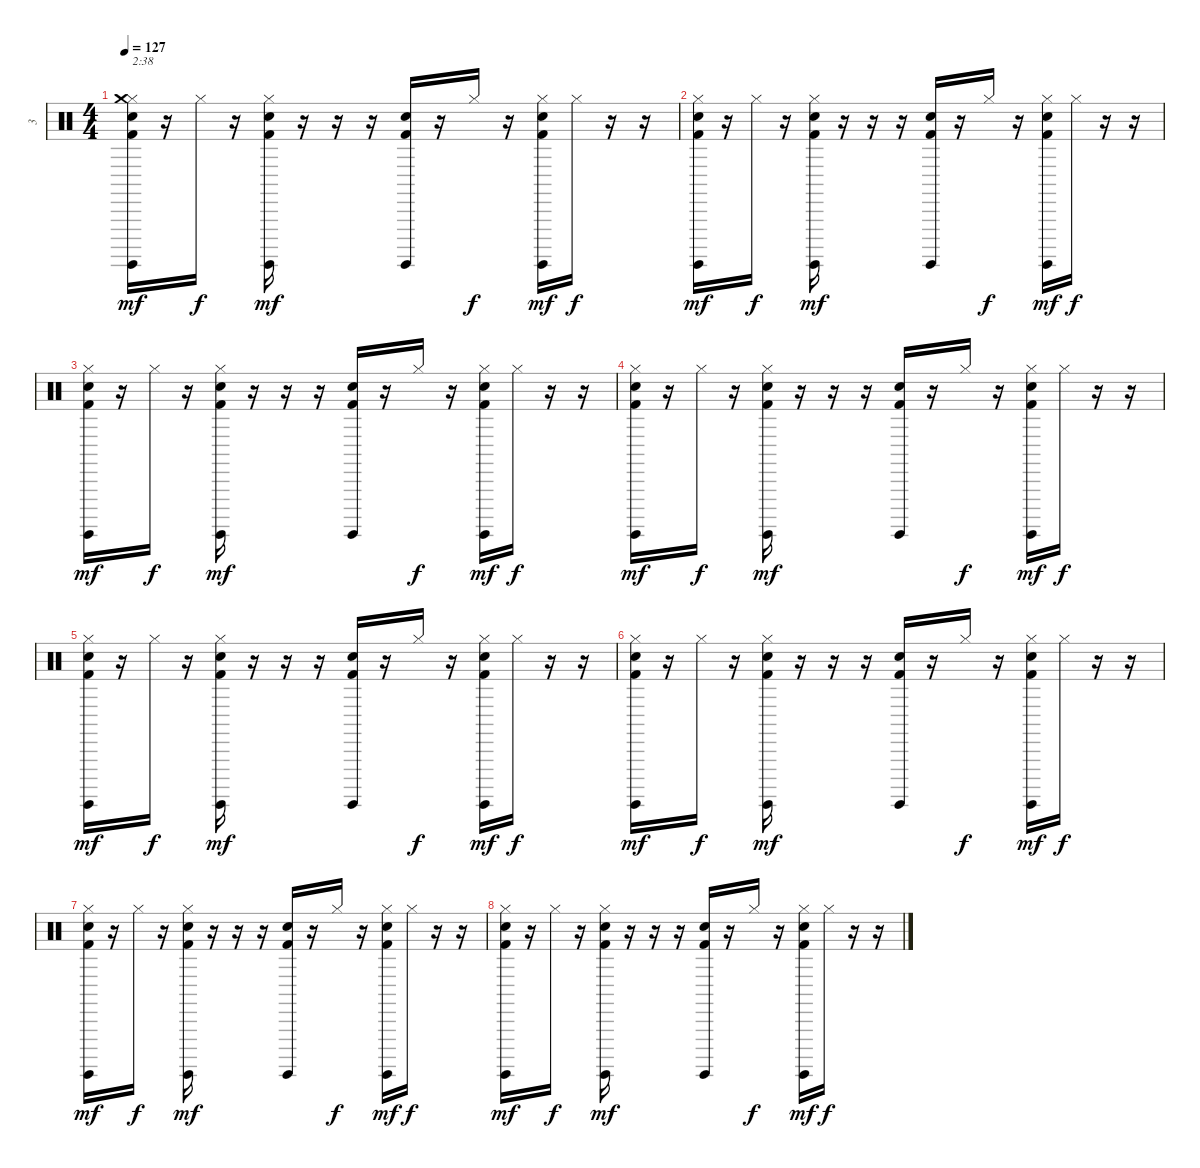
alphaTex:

\track ("3" "3") {instrument percussion}
\staff {score}
\articulation defaults
\ts (4 4)
\tempo 127
\clef neutral
\ks c
("Hi-Hat (closed)" "Crash medium (hit)" "Surdo (hit)" "Kick (hit) 2" "Hand Clap (hit)").16{txt "2:38" dy mf} r.16 "Hi-Hat (closed)".16{dy f} r.16 ("Hi-Hat (closed)" "Surdo (hit)" "Kick (hit) 2" "Hand Clap (hit)").16{dy mf} r.16 r.16 r.16 ("Surdo (hit)" "Kick (hit) 2" "Hand Clap (hit)").16 r.16 "Hi-Hat (closed)".16{dy f} r.16 ("Hi-Hat (closed)" "Surdo (hit)" "Kick (hit) 2" "Hand Clap (hit)").16{dy mf} "Hi-Hat (closed)".16{dy f} r.16 r.16 |
("Hi-Hat (closed)" "Surdo (hit)" "Kick (hit) 2" "Hand Clap (hit)").16{dy mf} r.16 "Hi-Hat (closed)".16{dy f} r.16 ("Hi-Hat (closed)" "Surdo (hit)" "Kick (hit) 2" "Hand Clap (hit)").16{dy mf} r.16 r.16 r.16 ("Surdo (hit)" "Kick (hit) 2" "Hand Clap (hit)").16 r.16 "Hi-Hat (closed)".16{dy f} r.16 ("Hi-Hat (closed)" "Surdo (hit)" "Kick (hit) 2" "Hand Clap (hit)").16{dy mf} "Hi-Hat (closed)".16{dy f} r.16 r.16 |
("Hi-Hat (closed)" "Surdo (hit)" "Kick (hit) 2" "Hand Clap (hit)").16{dy mf} r.16 "Hi-Hat (closed)".16{dy f} r.16 ("Hi-Hat (closed)" "Surdo (hit)" "Kick (hit) 2" "Hand Clap (hit)").16{dy mf} r.16 r.16 r.16 ("Surdo (hit)" "Kick (hit) 2" "Hand Clap (hit)").16 r.16 "Hi-Hat (closed)".16{dy f} r.16 ("Hi-Hat (closed)" "Surdo (hit)" "Kick (hit) 2" "Hand Clap (hit)").16{dy mf} "Hi-Hat (closed)".16{dy f} r.16 r.16 |
("Hi-Hat (closed)" "Surdo (hit)" "Kick (hit) 2" "Hand Clap (hit)").16{dy mf} r.16 "Hi-Hat (closed)".16{dy f} r.16 ("Hi-Hat (closed)" "Surdo (hit)" "Kick (hit) 2" "Hand Clap (hit)").16{dy mf} r.16 r.16 r.16 ("Surdo (hit)" "Kick (hit) 2" "Hand Clap (hit)").16 r.16 "Hi-Hat (closed)".16{dy f} r.16 ("Hi-Hat (closed)" "Surdo (hit)" "Kick (hit) 2" "Hand Clap (hit)").16{dy mf} "Hi-Hat (closed)".16{dy f} r.16 r.16 |
("Hi-Hat (closed)" "Surdo (hit)" "Kick (hit) 2" "Hand Clap (hit)").16{dy mf} r.16 "Hi-Hat (closed)".16{dy f} r.16 ("Hi-Hat (closed)" "Surdo (hit)" "Kick (hit) 2" "Hand Clap (hit)").16{dy mf} r.16 r.16 r.16 ("Surdo (hit)" "Kick (hit) 2" "Hand Clap (hit)").16 r.16 "Hi-Hat (closed)".16{dy f} r.16 ("Hi-Hat (closed)" "Surdo (hit)" "Kick (hit) 2" "Hand Clap (hit)").16{dy mf} "Hi-Hat (closed)".16{dy f} r.16 r.16 |
("Hi-Hat (closed)" "Surdo (hit)" "Kick (hit) 2" "Hand Clap (hit)").16{dy mf} r.16 "Hi-Hat (closed)".16{dy f} r.16 ("Hi-Hat (closed)" "Surdo (hit)" "Kick (hit) 2" "Hand Clap (hit)").16{dy mf} r.16 r.16 r.16 ("Surdo (hit)" "Kick (hit) 2" "Hand Clap (hit)").16 r.16 "Hi-Hat (closed)".16{dy f} r.16 ("Hi-Hat (closed)" "Surdo (hit)" "Kick (hit) 2" "Hand Clap (hit)").16{dy mf} "Hi-Hat (closed)".16{dy f} r.16 r.16 |
("Hi-Hat (closed)" "Surdo (hit)" "Kick (hit) 2" "Hand Clap (hit)").16{dy mf} r.16 "Hi-Hat (closed)".16{dy f} r.16 ("Hi-Hat (closed)" "Surdo (hit)" "Kick (hit) 2" "Hand Clap (hit)").16{dy mf} r.16 r.16 r.16 ("Surdo (hit)" "Kick (hit) 2" "Hand Clap (hit)").16 r.16 "Hi-Hat (closed)".16{dy f} r.16 ("Hi-Hat (closed)" "Surdo (hit)" "Kick (hit) 2" "Hand Clap (hit)").16{dy mf} "Hi-Hat (closed)".16{dy f} r.16 r.16 |
("Hi-Hat (closed)" "Surdo (hit)" "Kick (hit) 2" "Hand Clap (hit)").16{dy mf} r.16 "Hi-Hat (closed)".16{dy f} r.16 ("Hi-Hat (closed)" "Surdo (hit)" "Kick (hit) 2" "Hand Clap (hit)").16{dy mf} r.16 r.16 r.16 ("Surdo (hit)" "Kick (hit) 2" "Hand Clap (hit)").16 r.16 "Hi-Hat (closed)".16{dy f} r.16 ("Hi-Hat (closed)" "Surdo (hit)" "Kick (hit) 2" "Hand Clap (hit)").16{dy mf} "Hi-Hat (closed)".16{dy f} r.16 r.16
